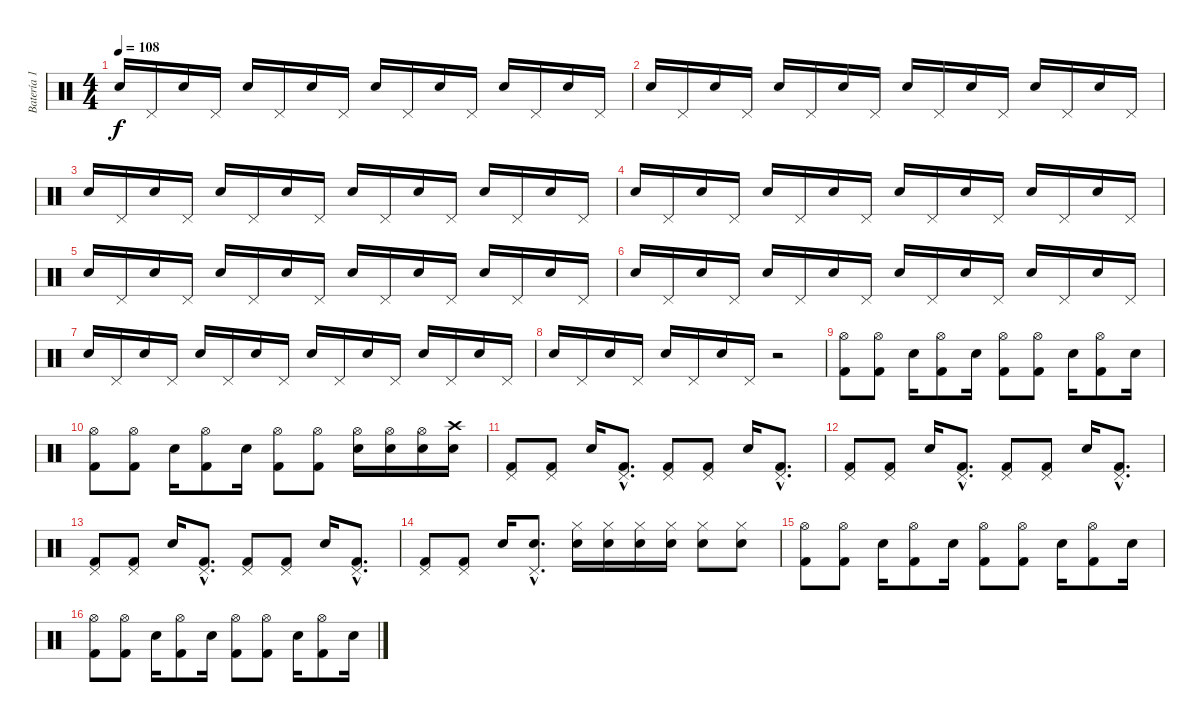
\track ("Batería 1" "Batería 1") {instrument percussion}
\staff {score}
\articulation defaults
\ts (4 4)
\tempo 108
\clef neutral
\ks c "Snare (hit) 2".16{dy f} "Pedal Hi-Hat (hit)".16 "Snare (hit) 2".16 "Pedal Hi-Hat (hit)".16 "Snare (hit) 2".16 "Pedal Hi-Hat (hit)".16 "Snare (hit) 2".16 "Pedal Hi-Hat (hit)".16 "Snare (hit) 2".16 "Pedal Hi-Hat (hit)".16 "Snare (hit) 2".16 "Pedal Hi-Hat (hit)".16 "Snare (hit) 2".16 "Pedal Hi-Hat (hit)".16 "Snare (hit) 2".16 "Pedal Hi-Hat (hit)".16
|
"Snare (hit) 2".16 "Pedal Hi-Hat (hit)".16 "Snare (hit) 2".16 "Pedal Hi-Hat (hit)".16 "Snare (hit) 2".16 "Pedal Hi-Hat (hit)".16 "Snare (hit) 2".16 "Pedal Hi-Hat (hit)".16 "Snare (hit) 2".16 "Pedal Hi-Hat (hit)".16 "Snare (hit) 2".16 "Pedal Hi-Hat (hit)".16 "Snare (hit) 2".16 "Pedal Hi-Hat (hit)".16 "Snare (hit) 2".16 "Pedal Hi-Hat (hit)".16 |
"Snare (hit) 2".16 "Pedal Hi-Hat (hit)".16 "Snare (hit) 2".16 "Pedal Hi-Hat (hit)".16 "Snare (hit) 2".16 "Pedal Hi-Hat (hit)".16 "Snare (hit) 2".16 "Pedal Hi-Hat (hit)".16 "Snare (hit) 2".16 "Pedal Hi-Hat (hit)".16 "Snare (hit) 2".16 "Pedal Hi-Hat (hit)".16 "Snare (hit) 2".16 "Pedal Hi-Hat (hit)".16 "Snare (hit) 2".16 "Pedal Hi-Hat (hit)".16 |
"Snare (hit) 2".16 "Pedal Hi-Hat (hit)".16 "Snare (hit) 2".16 "Pedal Hi-Hat (hit)".16 "Snare (hit) 2".16 "Pedal Hi-Hat (hit)".16 "Snare (hit) 2".16 "Pedal Hi-Hat (hit)".16 "Snare (hit) 2".16 "Pedal Hi-Hat (hit)".16 "Snare (hit) 2".16 "Pedal Hi-Hat (hit)".16 "Snare (hit) 2".16 "Pedal Hi-Hat (hit)".16 "Snare (hit) 2".16 "Pedal Hi-Hat (hit)".16 |
"Snare (hit) 2".16 "Pedal Hi-Hat (hit)".16 "Snare (hit) 2".16 "Pedal Hi-Hat (hit)".16 "Snare (hit) 2".16 "Pedal Hi-Hat (hit)".16 "Snare (hit) 2".16 "Pedal Hi-Hat (hit)".16 "Snare (hit) 2".16 "Pedal Hi-Hat (hit)".16 "Snare (hit) 2".16 "Pedal Hi-Hat (hit)".16 "Snare (hit) 2".16 "Pedal Hi-Hat (hit)".16 "Snare (hit) 2".16 "Pedal Hi-Hat (hit)".16 |
"Snare (hit) 2".16 "Pedal Hi-Hat (hit)".16 "Snare (hit) 2".16 "Pedal Hi-Hat (hit)".16 "Snare (hit) 2".16 "Pedal Hi-Hat (hit)".16 "Snare (hit) 2".16 "Pedal Hi-Hat (hit)".16 "Snare (hit) 2".16 "Pedal Hi-Hat (hit)".16 "Snare (hit) 2".16 "Pedal Hi-Hat (hit)".16 "Snare (hit) 2".16 "Pedal Hi-Hat (hit)".16 "Snare (hit) 2".16 "Pedal Hi-Hat (hit)".16 |
"Snare (hit) 2".16 "Pedal Hi-Hat (hit)".16 "Snare (hit) 2".16 "Pedal Hi-Hat (hit)".16 "Snare (hit) 2".16 "Pedal Hi-Hat (hit)".16 "Snare (hit) 2".16 "Pedal Hi-Hat (hit)".16 "Snare (hit) 2".16 "Pedal Hi-Hat (hit)".16 "Snare (hit) 2".16 "Pedal Hi-Hat (hit)".16 "Snare (hit) 2".16 "Pedal Hi-Hat (hit)".16 "Snare (hit) 2".16 "Pedal Hi-Hat (hit)".16 |
"Snare (hit) 2".16 "Pedal Hi-Hat (hit)".16 "Snare (hit) 2".16 "Pedal Hi-Hat (hit)".16 "Snare (hit) 2".16 "Pedal Hi-Hat (hit)".16 "Snare (hit) 2".16 "Pedal Hi-Hat (hit)".16 r.2 |
("Hi-Hat (open)" "Kick (hit) 2").8 ("Hi-Hat (open)" "Kick (hit) 2").8 "Snare (hit) 2".16 ("Hi-Hat (open)" "Kick (hit) 2").8 "Snare (hit) 2".16 ("Hi-Hat (open)" "Kick (hit) 2").8 ("Hi-Hat (open)" "Kick (hit) 2").8 "Snare (hit) 2".16 ("Hi-Hat (open)" "Kick (hit) 2").8 "Snare (hit) 2".16 |
("Hi-Hat (open)" "Kick (hit) 2").8 ("Hi-Hat (open)" "Kick (hit) 2").8 "Snare (hit) 2".16 ("Hi-Hat (open)" "Kick (hit) 2").8 "Snare (hit) 2".16 ("Hi-Hat (open)" "Kick (hit) 2").8 ("Hi-Hat (open)" "Kick (hit) 2").8 ("Hi-Hat (open)" "Snare (hit) 2").16 ("Hi-Hat (open)" "Snare (hit) 2").16 ("Hi-Hat (open)" "Snare (hit) 2").16 ("Crash high (hit)" "Snare (hit) 2").16 |
("Pedal Hi-Hat (hit)" "Kick (hit) 2").8 ("Pedal Hi-Hat (hit)" "Kick (hit) 2").8 "Snare (hit) 2".16 ("Pedal Hi-Hat (hit)"{hac} "Kick (hit) 2"{hac}).8{d} ("Pedal Hi-Hat (hit)" "Kick (hit) 2").8 ("Pedal Hi-Hat (hit)" "Kick (hit) 2").8 "Snare (hit) 2".16 ("Pedal Hi-Hat (hit)"{hac} "Kick (hit) 2"{hac}).8{d} |
("Pedal Hi-Hat (hit)" "Kick (hit) 2").8 ("Pedal Hi-Hat (hit)" "Kick (hit) 2").8 "Snare (hit) 2".16 ("Pedal Hi-Hat (hit)"{hac} "Kick (hit) 2"{hac}).8{d} ("Pedal Hi-Hat (hit)" "Kick (hit) 2").8 ("Pedal Hi-Hat (hit)" "Kick (hit) 2").8 "Snare (hit) 2".16 ("Pedal Hi-Hat (hit)"{hac} "Kick (hit) 2"{hac}).8{d} |
("Pedal Hi-Hat (hit)" "Kick (hit) 2").8 ("Pedal Hi-Hat (hit)" "Kick (hit) 2").8 "Snare (hit) 2".16 ("Pedal Hi-Hat (hit)"{hac} "Kick (hit) 2"{hac}).8{d} ("Pedal Hi-Hat (hit)" "Kick (hit) 2").8 ("Pedal Hi-Hat (hit)" "Kick (hit) 2").8 "Snare (hit) 2".16 ("Pedal Hi-Hat (hit)"{hac} "Kick (hit) 2"{hac}).8{d} |
("Pedal Hi-Hat (hit)" "Kick (hit) 2").8 ("Pedal Hi-Hat (hit)" "Kick (hit) 2").8 "Snare (hit) 2".16 ("Pedal Hi-Hat (hit)"{hac} "Snare (hit) 2"{hac}).8{d} ("Hi-Hat (closed)" "Snare (hit) 2").16 ("Hi-Hat (closed)" "Snare (hit) 2").16 ("Hi-Hat (closed)" "Snare (hit) 2").16 ("Hi-Hat (closed)" "Snare (hit) 2").16 ("Hi-Hat (closed)" "Snare (hit) 2").8 ("Hi-Hat (closed)" "Snare (hit) 2").8 |
("Hi-Hat (open)" "Kick (hit) 2").8 ("Hi-Hat (open)" "Kick (hit) 2").8 "Snare (hit) 2".16 ("Hi-Hat (open)" "Kick (hit) 2").8 "Snare (hit) 2".16 ("Hi-Hat (open)" "Kick (hit) 2").8 ("Hi-Hat (open)" "Kick (hit) 2").8 "Snare (hit) 2".16 ("Hi-Hat (open)" "Kick (hit) 2").8 "Snare (hit) 2".16 |
("Hi-Hat (open)" "Kick (hit) 2").8 ("Hi-Hat (open)" "Kick (hit) 2").8 "Snare (hit) 2".16 ("Hi-Hat (open)" "Kick (hit) 2").8 "Snare (hit) 2".16 ("Hi-Hat (open)" "Kick (hit) 2").8 ("Hi-Hat (open)" "Kick (hit) 2").8 "Snare (hit) 2".16 ("Hi-Hat (open)" "Kick (hit) 2").8 "Snare (hit) 2".16
